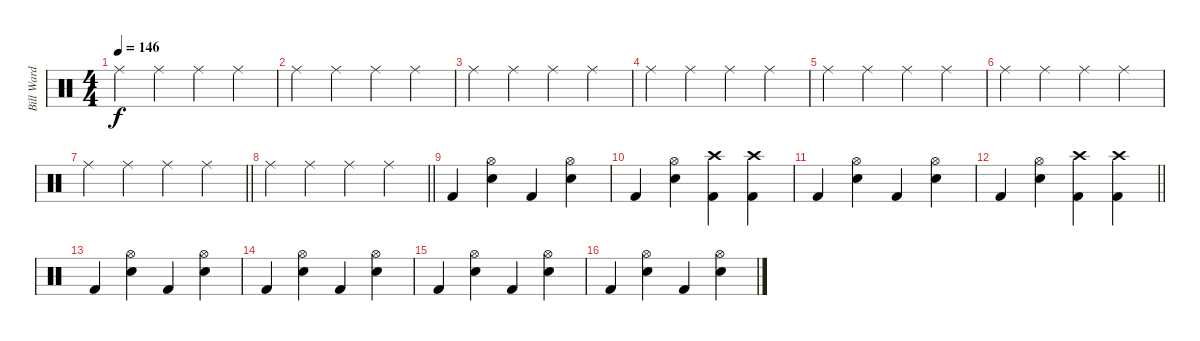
\track ("Bill Ward" "Bill Ward") {instrument percussion}
\staff {score}
\articulation defaults
\ts (4 4)
\tempo 146
\clef neutral
\ks c "Ride (middle)".4{dy f} "Ride (middle)".4 "Ride (middle)".4 "Ride (middle)".4
|
"Ride (middle)".4 "Ride (middle)".4 "Ride (middle)".4 "Ride (middle)".4 |
"Ride (middle)".4 "Ride (middle)".4 "Ride (middle)".4 "Ride (middle)".4 |
"Ride (middle)".4 "Ride (middle)".4 "Ride (middle)".4 "Ride (middle)".4 |
"Ride (middle)".4 "Ride (middle)".4 "Ride (middle)".4 "Ride (middle)".4 |
"Ride (middle)".4 "Ride (middle)".4 "Ride (middle)".4 "Ride (middle)".4 |
\barLineRight lightlight "Ride (middle)".4 "Ride (middle)".4 "Ride (middle)".4 "Ride (middle)".4
|
\barLineRight lightlight "Ride (middle)".4 "Ride (middle)".4 "Ride (middle)".4 "Ride (middle)".4
|
"Kick (hit) 2".4 ("Hi-Hat (open)" "Snare (hit) 2").4 "Kick (hit) 2".4 ("Hi-Hat (open)" "Snare (hit) 2").4 |
"Kick (hit) 2".4 ("Hi-Hat (open)" "Snare (hit) 2").4 ("Crash high (hit)" "Kick (hit) 2").4 ("Crash high (hit)" "Kick (hit) 2").4 |
"Kick (hit) 2".4 ("Hi-Hat (open)" "Snare (hit) 2").4 "Kick (hit) 2".4 ("Hi-Hat (open)" "Snare (hit) 2").4 |
\barLineRight lightlight "Kick (hit) 2".4
("Hi-Hat (open)" "Snare (hit) 2").4 ("Crash high (hit)" "Kick (hit) 2").4 ("Crash high (hit)" "Kick (hit) 2").4 |
"Kick (hit) 2".4 ("Hi-Hat (open)" "Snare (hit) 2").4 "Kick (hit) 2".4 ("Hi-Hat (open)" "Snare (hit) 2").4 |
"Kick (hit) 2".4 ("Hi-Hat (open)" "Snare (hit) 2").4 "Kick (hit) 2".4 ("Hi-Hat (open)" "Snare (hit) 2").4 |
"Kick (hit) 2".4 ("Hi-Hat (open)" "Snare (hit) 2").4 "Kick (hit) 2".4 ("Hi-Hat (open)" "Snare (hit) 2").4 |
"Kick (hit) 2".4 ("Hi-Hat (open)" "Snare (hit) 2").4 "Kick (hit) 2".4 ("Hi-Hat (open)" "Snare (hit) 2").4
